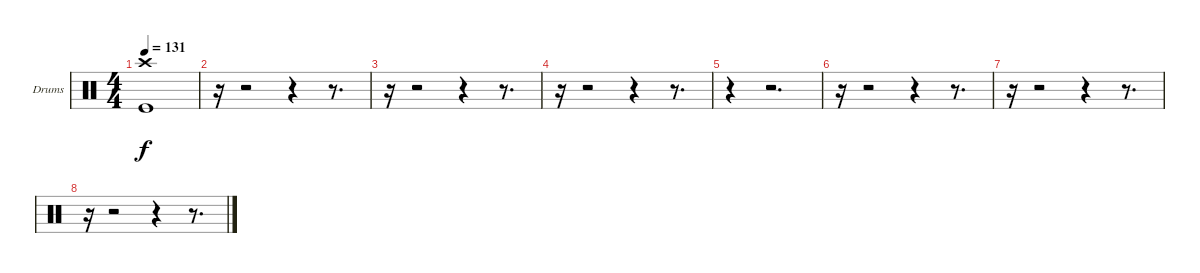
\bracketExtendMode groupsimilarinstruments
\firstSystemTrackNameOrientation horizontal
\otherSystemsTrackNameOrientation horizontal
\track ("Drumkit" "Drums") {instrument percussion}
\staff {score}
\articulation defaults
\ts (4 4)
\tempo 131
\clef neutral
\ks c
("Crash high (hit)" "Kick (hit)").1{dy f} |
r.16 r.2 r.4 r.8{d} |
r.16 r.2 r.4 r.8{d} |
r.16 r.2 r.4 r.8{d} |
r.4 r.2{d} |
r.16 r.2 r.4 r.8{d} |
r.16 r.2 r.4 r.8{d} |
r.16 r.2 r.4 r.8{d}
